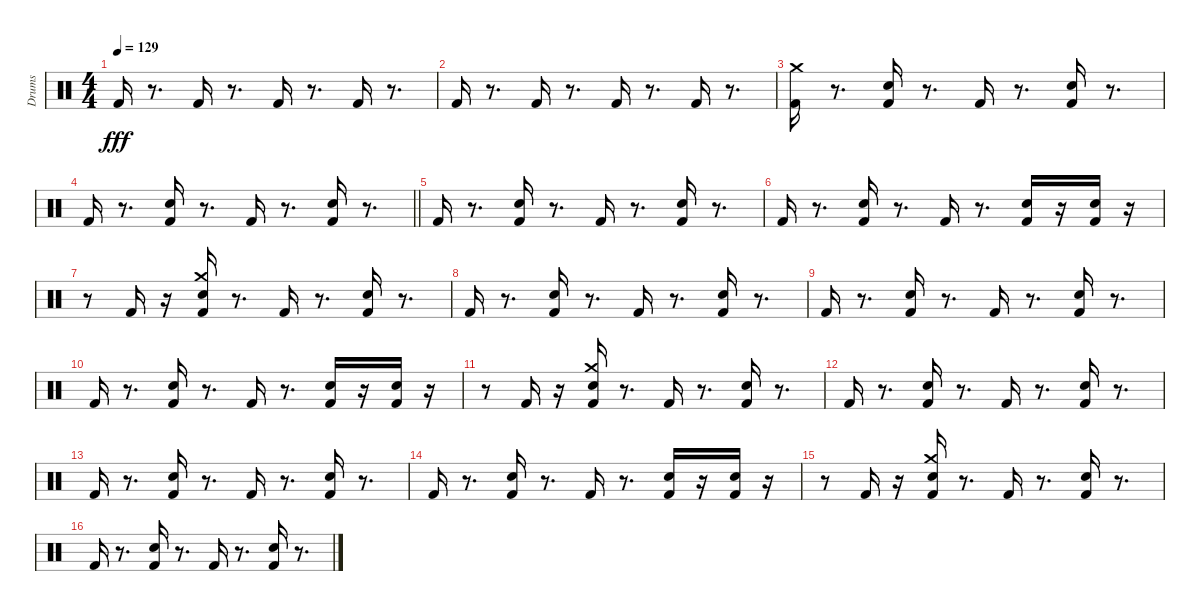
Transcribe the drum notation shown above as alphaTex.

\track ("Drums" "Drums") {instrument percussion}
\staff {score}
\articulation defaults
\ts (4 4)
\tempo 129
\clef neutral
\ks c "Kick (hit) 2".16{dy fff}
r.8{d} "Kick (hit) 2".16 r.8{d} "Kick (hit) 2".16 r.8{d} "Kick (hit) 2".16 r.8{d} |
"Kick (hit) 2".16 r.8{d} "Kick (hit) 2".16 r.8{d} "Kick (hit) 2".16 r.8{d} "Kick (hit) 2".16 r.8{d} |
("Kick (hit) 2" "Crash medium (hit)").16 r.8{d} ("Kick (hit) 2" "Electric Snare (hit)").16 r.8{d} "Kick (hit) 2".16 r.8{d} ("Kick (hit) 2" "Electric Snare (hit)").16 r.8{d} |
\barLineRight lightlight "Kick (hit) 2".16
r.8{d} ("Kick (hit) 2" "Electric Snare (hit)").16 r.8{d} "Kick (hit) 2".16 r.8{d} ("Kick (hit) 2" "Electric Snare (hit)").16 r.8{d} |
"Kick (hit) 2".16 r.8{d} ("Kick (hit) 2" "Electric Snare (hit)").16 r.8{d} "Kick (hit) 2".16 r.8{d} ("Kick (hit) 2" "Electric Snare (hit)").16 r.8{d} |
"Kick (hit) 2".16 r.8{d} ("Kick (hit) 2" "Electric Snare (hit)").16 r.8{d} "Kick (hit) 2".16 r.8{d} ("Kick (hit) 2" "Electric Snare (hit)").16 r.16 ("Kick (hit) 2" "Electric Snare (hit)").16 r.16 |
r.8 "Kick (hit) 2".16 r.16 ("Crash medium (hit)" "Kick (hit) 2" "Electric Snare (hit)").16 r.8{d} "Kick (hit) 2".16 r.8{d} ("Kick (hit) 2" "Electric Snare (hit)").16 r.8{d} |
"Kick (hit) 2".16 r.8{d} ("Kick (hit) 2" "Electric Snare (hit)").16 r.8{d} "Kick (hit) 2".16 r.8{d} ("Kick (hit) 2" "Electric Snare (hit)").16 r.8{d} |
"Kick (hit) 2".16 r.8{d} ("Kick (hit) 2" "Electric Snare (hit)").16 r.8{d} "Kick (hit) 2".16 r.8{d} ("Kick (hit) 2" "Electric Snare (hit)").16 r.8{d} |
"Kick (hit) 2".16 r.8{d} ("Kick (hit) 2" "Electric Snare (hit)").16 r.8{d} "Kick (hit) 2".16 r.8{d} ("Kick (hit) 2" "Electric Snare (hit)").16 r.16 ("Kick (hit) 2" "Electric Snare (hit)").16 r.16 |
r.8 "Kick (hit) 2".16 r.16 ("Crash medium (hit)" "Kick (hit) 2" "Electric Snare (hit)").16 r.8{d} "Kick (hit) 2".16 r.8{d} ("Kick (hit) 2" "Electric Snare (hit)").16 r.8{d} |
"Kick (hit) 2".16 r.8{d} ("Kick (hit) 2" "Electric Snare (hit)").16 r.8{d} "Kick (hit) 2".16 r.8{d} ("Kick (hit) 2" "Electric Snare (hit)").16 r.8{d} |
"Kick (hit) 2".16 r.8{d} ("Kick (hit) 2" "Electric Snare (hit)").16 r.8{d} "Kick (hit) 2".16 r.8{d} ("Kick (hit) 2" "Electric Snare (hit)").16 r.8{d} |
"Kick (hit) 2".16 r.8{d} ("Kick (hit) 2" "Electric Snare (hit)").16 r.8{d} "Kick (hit) 2".16 r.8{d} ("Kick (hit) 2" "Electric Snare (hit)").16 r.16 ("Kick (hit) 2" "Electric Snare (hit)").16 r.16 |
r.8 "Kick (hit) 2".16 r.16 ("Crash medium (hit)" "Kick (hit) 2" "Electric Snare (hit)").16 r.8{d} "Kick (hit) 2".16 r.8{d} ("Kick (hit) 2" "Electric Snare (hit)").16 r.8{d} |
"Kick (hit) 2".16 r.8{d} ("Kick (hit) 2" "Electric Snare (hit)").16 r.8{d} "Kick (hit) 2".16 r.8{d} ("Kick (hit) 2" "Electric Snare (hit)").16 r.8{d}
